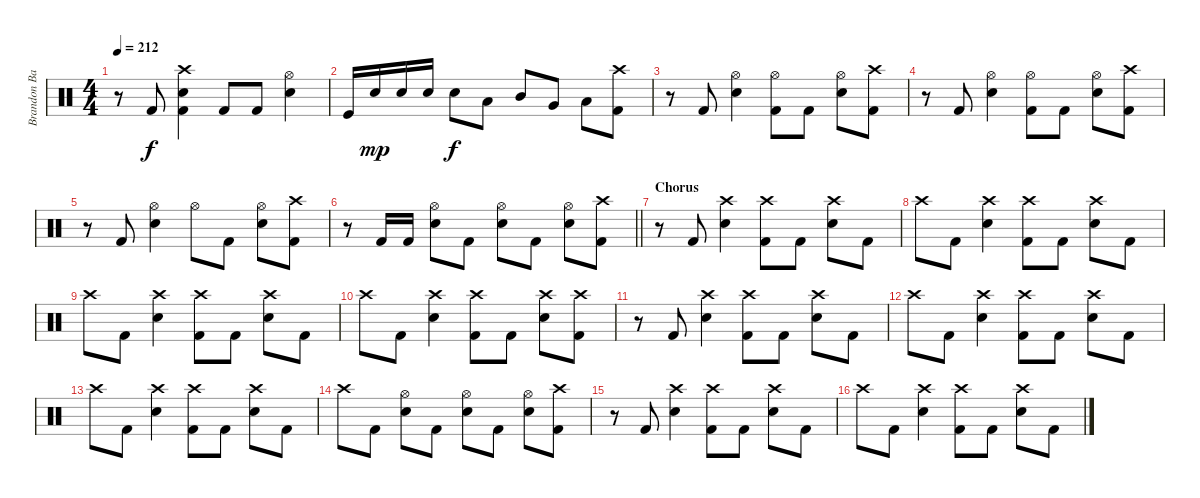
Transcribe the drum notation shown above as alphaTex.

\track ("Brandon Barnes - Drums" "Brandon Ba") {instrument percussion}
\staff {score}
\articulation defaults
\ts (4 4)
\tempo 212
\clef neutral
\ks c
r.8{dy f} "Kick (hit) 2".8 ("Kick (hit) 2" "Snare (hit) 2" "Crash high (hit)").4 "Kick (hit) 2".8 "Kick (hit) 2".8 ("Snare (hit) 2" "Hi-Hat (open)").4 |
"Kick (hit)".16 "Snare (hit) 2".16{dy mp} "Snare (hit) 2".16 "Snare (hit) 2".16 "Snare (hit) 2".8{dy f} "Low Tom (hit)".8 "Mid Tom (hit)".8 "Very Low Tom (hit)".8 "Low Floor Tom (hit)".8 ("Crash high (hit)" "Kick (hit) 2").8 |
r.8 "Kick (hit) 2".8 ("Snare (hit) 2" "Hi-Hat (open)").4 ("Kick (hit) 2" "Hi-Hat (open)").8 "Kick (hit) 2".8 ("Snare (hit) 2" "Hi-Hat (open)").8 ("Kick (hit) 2" "Crash high (hit)").8 |
r.8 "Kick (hit) 2".8 ("Snare (hit) 2" "Hi-Hat (open)").4 ("Kick (hit) 2" "Hi-Hat (open)").8 "Kick (hit) 2".8 ("Snare (hit) 2" "Hi-Hat (open)").8 ("Kick (hit) 2" "Crash high (hit)").8 |
r.8 "Kick (hit) 2".8 ("Snare (hit) 2" "Hi-Hat (open)").4 "Hi-Hat (open)".8 "Kick (hit) 2".8 ("Snare (hit) 2" "Hi-Hat (open)").8 ("Kick (hit) 2" "Crash high (hit)").8 |
\barLineRight lightlight
r.8 "Kick (hit) 2".16 "Kick (hit) 2".16 ("Snare (hit) 2" "Hi-Hat (open)").8 "Kick (hit) 2".8 ("Snare (hit) 2" "Hi-Hat (open)").8 "Kick (hit) 2".8 ("Snare (hit) 2" "Hi-Hat (open)").8 ("Kick (hit) 2" "Crash high (hit)").8 |
\section ("" "Chorus")
r.8 "Kick (hit) 2".8 ("Snare (hit) 2" "Crash high (hit)").4 ("Kick (hit) 2" "Crash high (hit)").8 "Kick (hit) 2".8 ("Snare (hit) 2" "Crash high (hit)").8 "Kick (hit) 2".8 |
"Crash high (hit)".8 "Kick (hit) 2".8 ("Snare (hit) 2" "Crash high (hit)").4 ("Kick (hit) 2" "Crash high (hit)").8 "Kick (hit) 2".8 ("Snare (hit) 2" "Crash high (hit)").8 "Kick (hit) 2".8 |
"Crash high (hit)".8 "Kick (hit) 2".8 ("Snare (hit) 2" "Crash high (hit)").4 ("Kick (hit) 2" "Crash high (hit)").8 "Kick (hit) 2".8 ("Snare (hit) 2" "Crash high (hit)").8 "Kick (hit) 2".8 |
"Crash high (hit)".8 "Kick (hit) 2".8 ("Snare (hit) 2" "Crash high (hit)").4 ("Kick (hit) 2" "Crash high (hit)").8 "Kick (hit) 2".8 ("Snare (hit) 2" "Crash high (hit)").8 ("Kick (hit) 2" "Crash high (hit)").8 |
r.8 "Kick (hit) 2".8 ("Snare (hit) 2" "Crash high (hit)").4 ("Kick (hit) 2" "Crash high (hit)").8 "Kick (hit) 2".8 ("Snare (hit) 2" "Crash high (hit)").8 "Kick (hit) 2".8 |
"Crash high (hit)".8 "Kick (hit) 2".8 ("Snare (hit) 2" "Crash high (hit)").4 ("Kick (hit) 2" "Crash high (hit)").8 "Kick (hit) 2".8 ("Snare (hit) 2" "Crash high (hit)").8 "Kick (hit) 2".8 |
"Crash high (hit)".8 "Kick (hit) 2".8 ("Snare (hit) 2" "Crash high (hit)").4 ("Kick (hit) 2" "Crash high (hit)").8 "Kick (hit) 2".8 ("Snare (hit) 2" "Crash high (hit)").8 "Kick (hit) 2".8 |
"Crash high (hit)".8 "Kick (hit) 2".8 ("Snare (hit) 2" "Hi-Hat (open)").8 "Kick (hit) 2".8 ("Snare (hit) 2" "Hi-Hat (open)").8 "Kick (hit) 2".8 ("Snare (hit) 2" "Hi-Hat (open)").8 ("Kick (hit) 2" "Crash high (hit)").8 |
r.8 "Kick (hit) 2".8 ("Snare (hit) 2" "Crash high (hit)").4 ("Kick (hit) 2" "Crash high (hit)").8 "Kick (hit) 2".8 ("Snare (hit) 2" "Crash high (hit)").8 "Kick (hit) 2".8 |
"Crash high (hit)".8 "Kick (hit) 2".8 ("Snare (hit) 2" "Crash high (hit)").4 ("Kick (hit) 2" "Crash high (hit)").8 "Kick (hit) 2".8 ("Snare (hit) 2" "Crash high (hit)").8 "Kick (hit) 2".8
